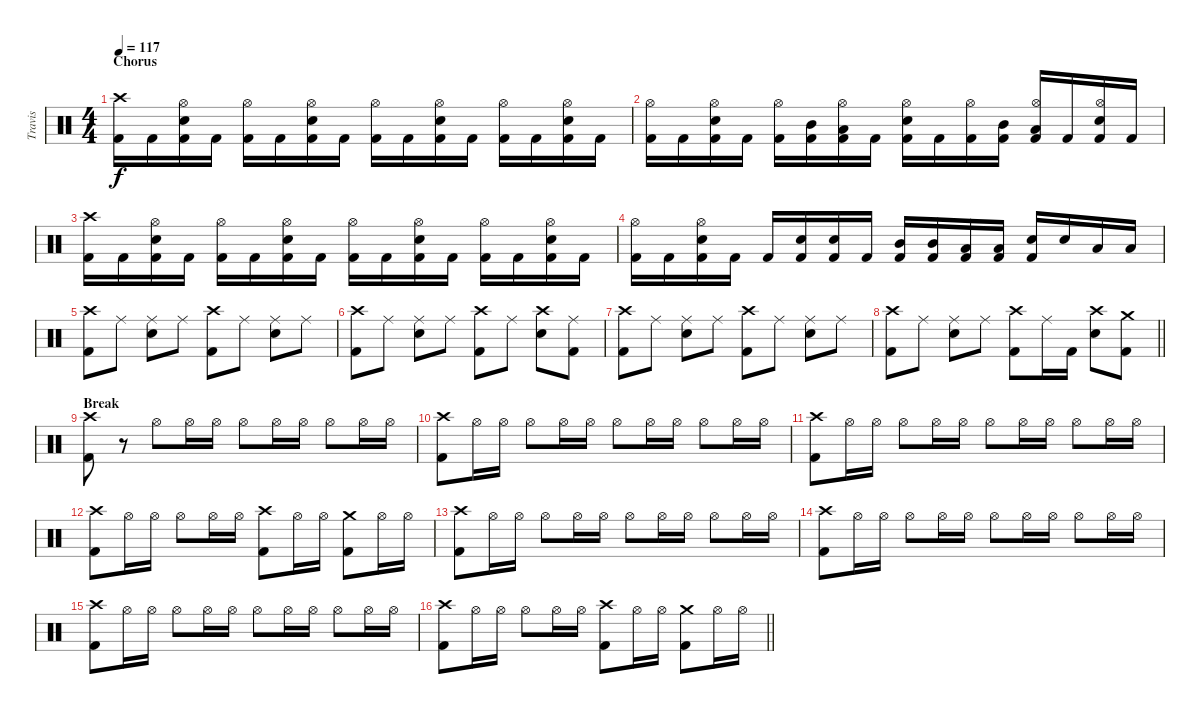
\track ("Travis" "Travis") {instrument percussion}
\staff {score}
\articulation defaults
\ts (4 4)
\section ("" "Chorus")
\tempo 117
\clef neutral
\ks c
("Crash high (hit)" "Kick (hit) 2").16{dy f} "Kick (hit) 2".16 ("Hi-Hat (open)" "Electric Snare (hit)" "Kick (hit) 2").16 "Kick (hit) 2".16 ("Hi-Hat (open)" "Kick (hit) 2").16 "Kick (hit) 2".16 ("Hi-Hat (open)" "Electric Snare (hit)" "Kick (hit) 2").16 "Kick (hit) 2".16 ("Hi-Hat (open)" "Kick (hit) 2").16 "Kick (hit) 2".16 ("Hi-Hat (open)" "Electric Snare (hit)" "Kick (hit) 2").16 "Kick (hit) 2".16 ("Hi-Hat (open)" "Kick (hit) 2").16 "Kick (hit) 2".16 ("Hi-Hat (open)" "Electric Snare (hit)" "Kick (hit) 2").16 "Kick (hit) 2".16 |
("Hi-Hat (open)" "Kick (hit) 2").16 "Kick (hit) 2".16 ("Hi-Hat (open)" "Electric Snare (hit)" "Kick (hit) 2").16 "Kick (hit) 2".16 ("Hi-Hat (open)" "Kick (hit) 2").16 ("Mid Tom (hit)" "Kick (hit) 2").16 ("Hi-Hat (open)" "Low Tom (hit)" "Kick (hit) 2").16 "Kick (hit) 2".16 ("Hi-Hat (open)" "Electric Snare (hit)" "Kick (hit) 2").16 "Kick (hit) 2".16 ("Hi-Hat (open)" "Kick (hit) 2").16 ("Mid Tom (hit)" "Kick (hit) 2").16 ("Hi-Hat (open)" "Low Tom (hit)" "Kick (hit) 2").16 "Kick (hit) 2".16 ("Hi-Hat (open)" "Electric Snare (hit)" "Kick (hit) 2").16 "Kick (hit) 2".16 |
("Crash high (hit)" "Kick (hit) 2").16 "Kick (hit) 2".16 ("Hi-Hat (open)" "Electric Snare (hit)" "Kick (hit) 2").16 "Kick (hit) 2".16 ("Hi-Hat (open)" "Kick (hit) 2").16 "Kick (hit) 2".16 ("Hi-Hat (open)" "Electric Snare (hit)" "Kick (hit) 2").16 "Kick (hit) 2".16 ("Hi-Hat (open)" "Kick (hit) 2").16 "Kick (hit) 2".16 ("Hi-Hat (open)" "Electric Snare (hit)" "Kick (hit) 2").16 "Kick (hit) 2".16 ("Hi-Hat (open)" "Kick (hit) 2").16 "Kick (hit) 2".16 ("Hi-Hat (open)" "Electric Snare (hit)" "Kick (hit) 2").16 "Kick (hit) 2".16 |
("Hi-Hat (open)" "Kick (hit) 2").16 "Kick (hit) 2".16 ("Hi-Hat (open)" "Electric Snare (hit)" "Kick (hit) 2").16 "Kick (hit) 2".16 "Kick (hit) 2".16 ("Electric Snare (hit)" "Kick (hit) 2").16 ("Electric Snare (hit)" "Kick (hit) 2").16 "Kick (hit) 2".16 ("Mid Tom (hit)" "Kick (hit) 2").16 ("Mid Tom (hit)" "Kick (hit) 2").16 ("Low Tom (hit)" "Kick (hit) 2").16 ("Low Tom (hit)" "Kick (hit) 2").16 ("Electric Snare (hit)" "Kick (hit) 2").16 "Electric Snare (hit)".16 "Low Tom (hit)".16 "Low Tom (hit)".16 |
("Crash high (hit)" "Kick (hit) 2").8 "Ride (middle)".8 ("Ride (middle)" "Electric Snare (hit)").8 "Ride (middle)".8 ("Crash high (hit)" "Kick (hit) 2").8 "Ride (middle)".8 ("Ride (middle)" "Electric Snare (hit)").8 "Ride (middle)".8 |
("Crash high (hit)" "Kick (hit) 2").8 "Ride (middle)".8 ("Ride (middle)" "Electric Snare (hit)").8 "Ride (middle)".8 ("Crash high (hit)" "Kick (hit) 2").8 "Ride (middle)".8 ("Crash high (hit)" "Electric Snare (hit)").8 ("Ride (middle)" "Kick (hit) 2").8 |
("Crash high (hit)" "Kick (hit) 2").8 "Ride (middle)".8 ("Ride (middle)" "Electric Snare (hit)").8 "Ride (middle)".8 ("Crash high (hit)" "Kick (hit) 2").8 "Ride (middle)".8 ("Ride (middle)" "Electric Snare (hit)").8 "Ride (middle)".8 |
\barLineRight lightlight
("Crash high (hit)" "Kick (hit) 2").8 "Ride (middle)".8 ("Ride (middle)" "Electric Snare (hit)").8 "Ride (middle)".8 ("Crash high (hit)" "Kick (hit) 2").8 "Ride (middle)".16 "Kick (hit) 2".16 ("Crash high (hit)" "Electric Snare (hit)").8 ("Crash medium (hit)" "Kick (hit) 2").8 |
\section ("" "Break")
("Crash high (hit)" "Kick (hit) 2").8 r.8 "Hi-Hat (open)".8 "Hi-Hat (open)".16 "Hi-Hat (open)".16 "Hi-Hat (open)".8 "Hi-Hat (open)".16 "Hi-Hat (open)".16 "Hi-Hat (open)".8 "Hi-Hat (open)".16 "Hi-Hat (open)".16 |
("Crash high (hit)" "Kick (hit) 2").8 "Hi-Hat (open)".16 "Hi-Hat (open)".16 "Hi-Hat (open)".8 "Hi-Hat (open)".16 "Hi-Hat (open)".16 "Hi-Hat (open)".8 "Hi-Hat (open)".16 "Hi-Hat (open)".16 "Hi-Hat (open)".8 "Hi-Hat (open)".16 "Hi-Hat (open)".16 |
("Crash high (hit)" "Kick (hit) 2").8 "Hi-Hat (open)".16 "Hi-Hat (open)".16 "Hi-Hat (open)".8 "Hi-Hat (open)".16 "Hi-Hat (open)".16 "Hi-Hat (open)".8 "Hi-Hat (open)".16 "Hi-Hat (open)".16 "Hi-Hat (open)".8 "Hi-Hat (open)".16 "Hi-Hat (open)".16 |
("Crash high (hit)" "Kick (hit) 2").8 "Hi-Hat (open)".16 "Hi-Hat (open)".16 "Hi-Hat (open)".8 "Hi-Hat (open)".16 "Hi-Hat (open)".16 ("Crash high (hit)" "Kick (hit) 2").8 "Hi-Hat (open)".16 "Hi-Hat (open)".16 ("Crash medium (hit)" "Kick (hit) 2").8 "Hi-Hat (open)".16 "Hi-Hat (open)".16 |
("Crash high (hit)" "Kick (hit) 2").8 "Hi-Hat (open)".16 "Hi-Hat (open)".16 "Hi-Hat (open)".8 "Hi-Hat (open)".16 "Hi-Hat (open)".16 "Hi-Hat (open)".8 "Hi-Hat (open)".16 "Hi-Hat (open)".16 "Hi-Hat (open)".8 "Hi-Hat (open)".16 "Hi-Hat (open)".16 |
("Crash high (hit)" "Kick (hit) 2").8 "Hi-Hat (open)".16 "Hi-Hat (open)".16 "Hi-Hat (open)".8 "Hi-Hat (open)".16 "Hi-Hat (open)".16 "Hi-Hat (open)".8 "Hi-Hat (open)".16 "Hi-Hat (open)".16 "Hi-Hat (open)".8 "Hi-Hat (open)".16 "Hi-Hat (open)".16 |
("Crash high (hit)" "Kick (hit) 2").8 "Hi-Hat (open)".16 "Hi-Hat (open)".16 "Hi-Hat (open)".8 "Hi-Hat (open)".16 "Hi-Hat (open)".16 "Hi-Hat (open)".8 "Hi-Hat (open)".16 "Hi-Hat (open)".16 "Hi-Hat (open)".8 "Hi-Hat (open)".16 "Hi-Hat (open)".16 |
\barLineRight lightlight
("Crash high (hit)" "Kick (hit) 2").8 "Hi-Hat (open)".16 "Hi-Hat (open)".16 "Hi-Hat (open)".8 "Hi-Hat (open)".16 "Hi-Hat (open)".16 ("Crash high (hit)" "Kick (hit) 2").8 "Hi-Hat (open)".16 "Hi-Hat (open)".16 ("Crash medium (hit)" "Kick (hit) 2").8 "Hi-Hat (open)".16 "Hi-Hat (open)".16
